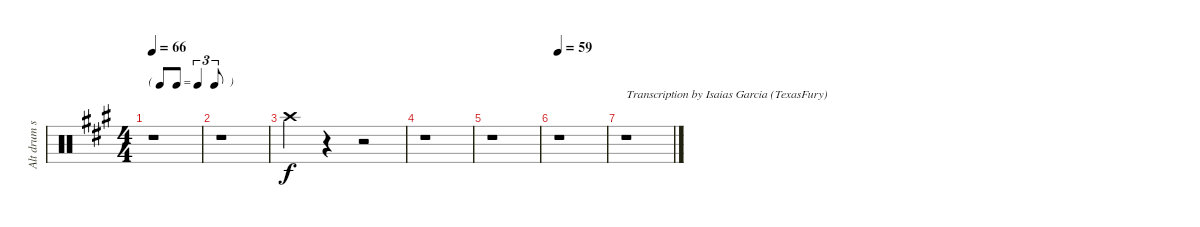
\track ("Alt drum sounds" "Alt drum s") {instrument percussion}
\staff {score}
\articulation defaults
\ts (4 4)
\tf triplet8th
\tempo 66
\clef neutral
\ks a
r.1{dy ff} |
r.1 |
"Crash high (hit)".4{dy f} r.4 r.2 |
r.1 |
r.1 |
\tempo 59
r.1 |
r.1{txt "Transcription by Isaias Garcia (TexasFury)"}
